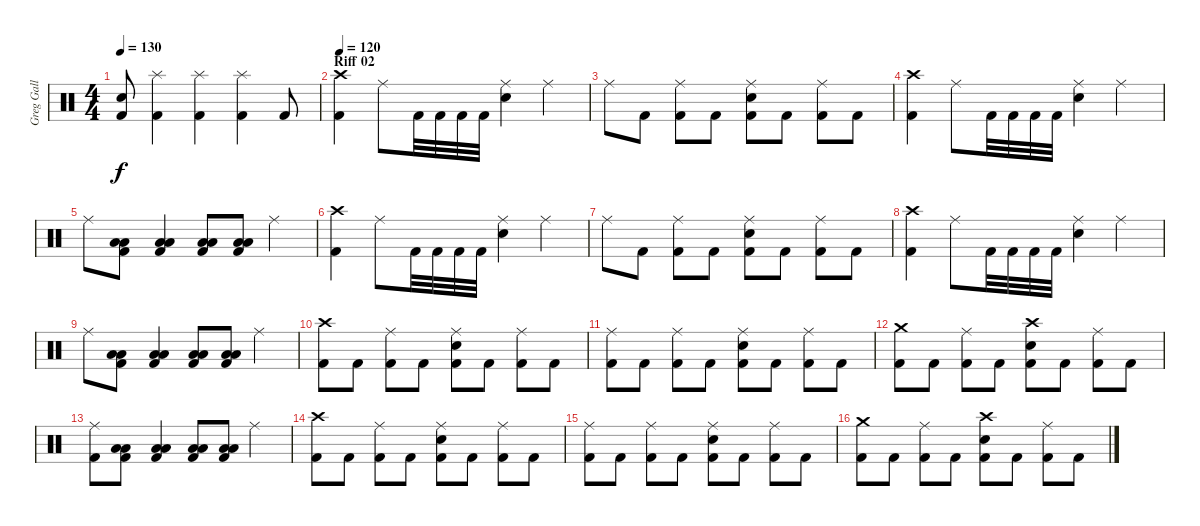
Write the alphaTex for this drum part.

\track ("Greg Gall" "Greg Gall") {instrument percussion}
\staff {score}
\articulation defaults
\ts (4 4)
\tempo 130
\clef neutral
\ks c
("Electric Snare (hit)" "Kick (hit) 2").8{dy f} ("Splash (hit)" "Kick (hit) 2").4 ("Splash (hit)" "Kick (hit) 2").4 ("Splash (hit)" "Kick (hit) 2").4 "Kick (hit) 2".8 |
\section ("" "Riff 02")
\tempo 120
("Crash high (hit)" "Kick (hit) 2").4 "Ride (middle)".8 "Kick (hit) 2".32 "Kick (hit) 2".32 "Kick (hit) 2".32 "Kick (hit) 2".32 ("Ride (middle)" "Electric Snare (hit)").4 "Ride (middle)".4 |
"Ride (middle)".8 "Kick (hit) 2".8 ("Ride (middle)" "Kick (hit) 2").8 "Kick (hit) 2".8 ("Ride (middle)" "Electric Snare (hit)" "Kick (hit) 2").8 "Kick (hit) 2".8 ("Ride (middle)" "Kick (hit) 2").8 "Kick (hit) 2".8 |
("Crash high (hit)" "Kick (hit) 2").4 "Ride (middle)".8 "Kick (hit) 2".32 "Kick (hit) 2".32 "Kick (hit) 2".32 "Kick (hit) 2".32 ("Ride (middle)" "Electric Snare (hit)").4 "Ride (middle)".4 |
"Ride (middle)".8 ("Low Floor Tom (hit)" "Low Floor Tom (hit)" "Kick (hit) 2").8 ("Low Floor Tom (hit)" "Low Floor Tom (hit)" "Kick (hit) 2").4 ("Low Floor Tom (hit)" "Low Floor Tom (hit)" "Kick (hit) 2").8 ("Low Floor Tom (hit)" "Low Floor Tom (hit)" "Kick (hit) 2").8 "Ride (middle)".4 |
("Crash high (hit)" "Kick (hit) 2").4 "Ride (middle)".8 "Kick (hit) 2".32 "Kick (hit) 2".32 "Kick (hit) 2".32 "Kick (hit) 2".32 ("Ride (middle)" "Electric Snare (hit)").4 "Ride (middle)".4 |
"Ride (middle)".8 "Kick (hit) 2".8 ("Ride (middle)" "Kick (hit) 2").8 "Kick (hit) 2".8 ("Ride (middle)" "Electric Snare (hit)" "Kick (hit) 2").8 "Kick (hit) 2".8 ("Ride (middle)" "Kick (hit) 2").8 "Kick (hit) 2".8 |
("Crash high (hit)" "Kick (hit) 2").4 "Ride (middle)".8 "Kick (hit) 2".32 "Kick (hit) 2".32 "Kick (hit) 2".32 "Kick (hit) 2".32 ("Ride (middle)" "Electric Snare (hit)").4 "Ride (middle)".4 |
"Ride (middle)".8 ("Low Floor Tom (hit)" "Low Floor Tom (hit)" "Kick (hit) 2").8 ("Low Floor Tom (hit)" "Low Floor Tom (hit)" "Kick (hit) 2").4 ("Low Floor Tom (hit)" "Low Floor Tom (hit)" "Kick (hit) 2").8 ("Low Floor Tom (hit)" "Low Floor Tom (hit)" "Kick (hit) 2").8 "Ride (middle)".4 |
("Crash high (hit)" "Kick (hit) 2").8 "Kick (hit) 2".8 ("Ride (middle)" "Kick (hit) 2").8 "Kick (hit) 2".8 ("Ride (middle)" "Electric Snare (hit)" "Kick (hit) 2").8 "Kick (hit) 2".8 ("Ride (middle)" "Kick (hit) 2").8 "Kick (hit) 2".8 |
("Ride (middle)" "Kick (hit) 2").8 "Kick (hit) 2".8 ("Ride (middle)" "Kick (hit) 2").8 "Kick (hit) 2".8 ("Ride (middle)" "Electric Snare (hit)" "Kick (hit) 2").8 "Kick (hit) 2".8 ("Ride (middle)" "Kick (hit) 2").8 "Kick (hit) 2".8 |
("Crash medium (hit)" "Kick (hit) 2").8 "Kick (hit) 2".8 ("Ride (middle)" "Kick (hit) 2").8 "Kick (hit) 2".8 ("Crash high (hit)" "Electric Snare (hit)" "Kick (hit) 2").8 "Kick (hit) 2".8 ("Ride (middle)" "Kick (hit) 2").8 "Kick (hit) 2".8 |
("Ride (middle)" "Kick (hit) 2").8 ("Low Floor Tom (hit)" "Low Floor Tom (hit)" "Kick (hit) 2").8 ("Low Floor Tom (hit)" "Low Floor Tom (hit)" "Kick (hit) 2").4 ("Low Floor Tom (hit)" "Low Floor Tom (hit)" "Kick (hit) 2").8 ("Low Floor Tom (hit)" "Low Floor Tom (hit)" "Kick (hit) 2").8 "Ride (middle)".4 |
("Crash high (hit)" "Kick (hit) 2").8 "Kick (hit) 2".8 ("Ride (middle)" "Kick (hit) 2").8 "Kick (hit) 2".8 ("Ride (middle)" "Electric Snare (hit)" "Kick (hit) 2").8 "Kick (hit) 2".8 ("Ride (middle)" "Kick (hit) 2").8 "Kick (hit) 2".8 |
("Ride (middle)" "Kick (hit) 2").8 "Kick (hit) 2".8 ("Ride (middle)" "Kick (hit) 2").8 "Kick (hit) 2".8 ("Ride (middle)" "Electric Snare (hit)" "Kick (hit) 2").8 "Kick (hit) 2".8 ("Ride (middle)" "Kick (hit) 2").8 "Kick (hit) 2".8 |
("Crash medium (hit)" "Kick (hit) 2").8 "Kick (hit) 2".8 ("Ride (middle)" "Kick (hit) 2").8 "Kick (hit) 2".8 ("Crash high (hit)" "Electric Snare (hit)" "Kick (hit) 2").8 "Kick (hit) 2".8 ("Ride (middle)" "Kick (hit) 2").8 "Kick (hit) 2".8
